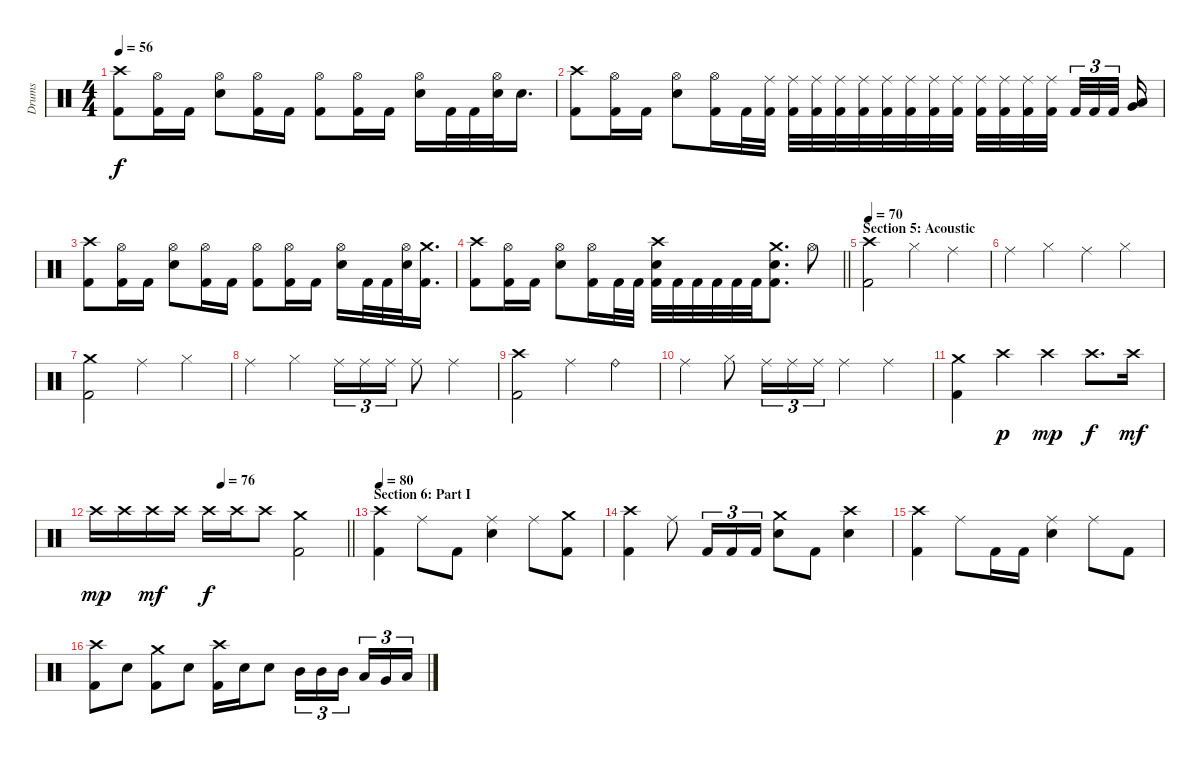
\track ("Drums" "Drums") {instrument percussion}
\staff {score}
\articulation defaults
\ts (4 4)
\tempo 56
\clef neutral
\ks c
("Crash high (hit)" "Kick (hit) 2").8{dy f} ("Hi-Hat (open)" "Kick (hit) 2").16 "Kick (hit) 2".16 ("Hi-Hat (open)" "Electric Snare (hit)").8 ("Hi-Hat (open)" "Kick (hit) 2").16 "Kick (hit) 2".16 ("Hi-Hat (open)" "Kick (hit) 2").8 ("Hi-Hat (open)" "Kick (hit) 2").16 "Kick (hit) 2".16 ("Hi-Hat (open)" "Electric Snare (hit)").16 "Kick (hit) 2".32 "Kick (hit) 2".32 ("Hi-Hat (open)" "Electric Snare (hit)").32 "Electric Snare (hit)".16{d} |
("Crash high (hit)" "Kick (hit) 2").8 ("Hi-Hat (open)" "Kick (hit) 2").16 "Kick (hit) 2".16 ("Hi-Hat (open)" "Electric Snare (hit)").8 ("Hi-Hat (open)" "Kick (hit) 2").16 "Kick (hit) 2".32 ("Ride (middle)" "Kick (hit) 2").32 ("Ride (middle)" "Kick (hit) 2").32 ("Ride (middle)" "Kick (hit) 2").32 ("Ride (middle)" "Kick (hit) 2").32 ("Ride (middle)" "Kick (hit) 2").32 ("Ride (middle)" "Kick (hit) 2").32 ("Ride (middle)" "Kick (hit) 2").32 ("Ride (middle)" "Kick (hit) 2").32 ("Ride (middle)" "Kick (hit) 2").32 ("Ride (middle)" "Kick (hit) 2").32 ("Ride (middle)" "Kick (hit) 2").32 ("Ride (middle)" "Kick (hit) 2").32 ("Ride (middle)" "Kick (hit) 2").32{beam splitsecondary} "Kick (hit) 2".32{tu (3 2)} "Kick (hit) 2".32{tu (3 2)} "Kick (hit) 2".32{tu (3 2) beam splitsecondary} ("Low Tom (hit)" "Very Low Tom (hit)").16 |
("Crash high (hit)" "Kick (hit) 2").8 ("Hi-Hat (open)" "Kick (hit) 2").16 "Kick (hit) 2".16 ("Hi-Hat (open)" "Electric Snare (hit)").8 ("Hi-Hat (open)" "Kick (hit) 2").16 "Kick (hit) 2".16 ("Hi-Hat (open)" "Kick (hit) 2").8 ("Hi-Hat (open)" "Kick (hit) 2").16 "Kick (hit) 2".16 ("Hi-Hat (open)" "Electric Snare (hit)").16 "Kick (hit) 2".32 "Kick (hit) 2".32 ("Hi-Hat (open)" "Electric Snare (hit)").32 ("Crash medium (hit)" "Kick (hit) 2").16{d} |
\barLineRight lightlight
("Crash high (hit)" "Kick (hit) 2").8 ("Hi-Hat (open)" "Kick (hit) 2").16 "Kick (hit) 2".16 ("Hi-Hat (open)" "Electric Snare (hit)").8 ("Hi-Hat (open)" "Kick (hit) 2").16 "Kick (hit) 2".32 "Kick (hit) 2".32 ("Crash high (hit)" "Electric Snare (hit)" "Kick (hit) 2").32 "Kick (hit) 2".32 "Kick (hit) 2".32 "Kick (hit) 2".32 "Kick (hit) 2".32 "Kick (hit) 2".32 ("Crash medium (hit)" "Electric Snare (hit)" "Kick (hit) 2").8{d} "Hi-Hat (open)".8 |
\section ("" "Section 5: Acoustic")
\tempo 70
("Crash high (hit)" "Kick (hit) 2").2 "Hi-Hat (closed)".4 "Ride (middle)".4 |
"Ride (middle)".4 "Hi-Hat (closed)".4 "Ride (middle)".4 "Hi-Hat (closed)".4 |
("Crash medium (hit)" "Kick (hit) 2").2 "Ride (middle)".4 "Hi-Hat (closed)".4 |
"Ride (middle)".4 "Hi-Hat (closed)".4 "Ride (middle)".16{tu (3 2)} "Ride (middle)".16{tu (3 2)} "Ride (middle)".16{tu (3 2)} "Ride (middle)".8 "Ride (middle)".4 |
("Crash high (hit)" "Kick (hit) 2").2 "Ride (middle)".4 "Ride (bell)".4 |
"Ride (middle)".4 "Hi-Hat (closed)".8 "Ride (middle)".16{tu (3 2)} "Ride (middle)".16{tu (3 2)} "Ride (middle)".16{tu (3 2)} "Ride (middle)".4 "Ride (middle)".4 |
("Crash medium (hit)" "Kick (hit) 2").4 "Crash high (hit)".4{dy p} "Crash high (hit)".4{dy mp} "Crash high (hit)".8{d dy f} "Crash high (hit)".16{dy mf} |
\tempo (76 0.5)
\barLineRight lightlight "Crash high (hit)".16{dy mp} "Crash high (hit)".16 "Crash high (hit)".16{dy mf} "Crash high (hit)".16 "Crash high (hit)".16{dy f} "Crash high (hit)".16 "Crash high (hit)".8
("Crash medium (hit)" "Kick (hit) 2").2 |
\section ("" "Section 6: Part I")
\tempo 80
("Crash high (hit)" "Kick (hit) 2").4 "Ride (middle)".8 "Kick (hit) 2".8 ("Ride (middle)" "Electric Snare (hit)").4 "Ride (middle)".8 ("Crash medium (hit)" "Kick (hit) 2").8 |
("Crash high (hit)" "Kick (hit) 2").4 "Ride (middle)".8 "Kick (hit) 2".16{tu (3 2)} "Kick (hit) 2".16{tu (3 2)} "Kick (hit) 2".16{tu (3 2)} ("Crash medium (hit)" "Electric Snare (hit)").8 "Kick (hit) 2".8 ("Crash high (hit)" "Electric Snare (hit)").4 |
("Crash high (hit)" "Kick (hit) 2").4 "Ride (middle)".8 "Kick (hit) 2".16 "Kick (hit) 2".16 ("Ride (middle)" "Electric Snare (hit)").4 "Ride (middle)".8 "Kick (hit) 2".8 |
("Crash high (hit)" "Kick (hit) 2").8 "Electric Snare (hit)".8 ("Crash medium (hit)" "Kick (hit) 2").8 "Electric Snare (hit)".8 ("Crash high (hit)" "Kick (hit) 2").16 "Electric Snare (hit)".16 "Electric Snare (hit)".8 "Mid Tom (hit)".16{tu (3 2)} "Mid Tom (hit)".16{tu (3 2)} "Mid Tom (hit)".16{tu (3 2) beam splitsecondary} "Low Tom (hit)".16{tu (3 2)} "Very Low Tom (hit)".16{tu (3 2)} "Low Floor Tom (hit)".16{tu (3 2)}
